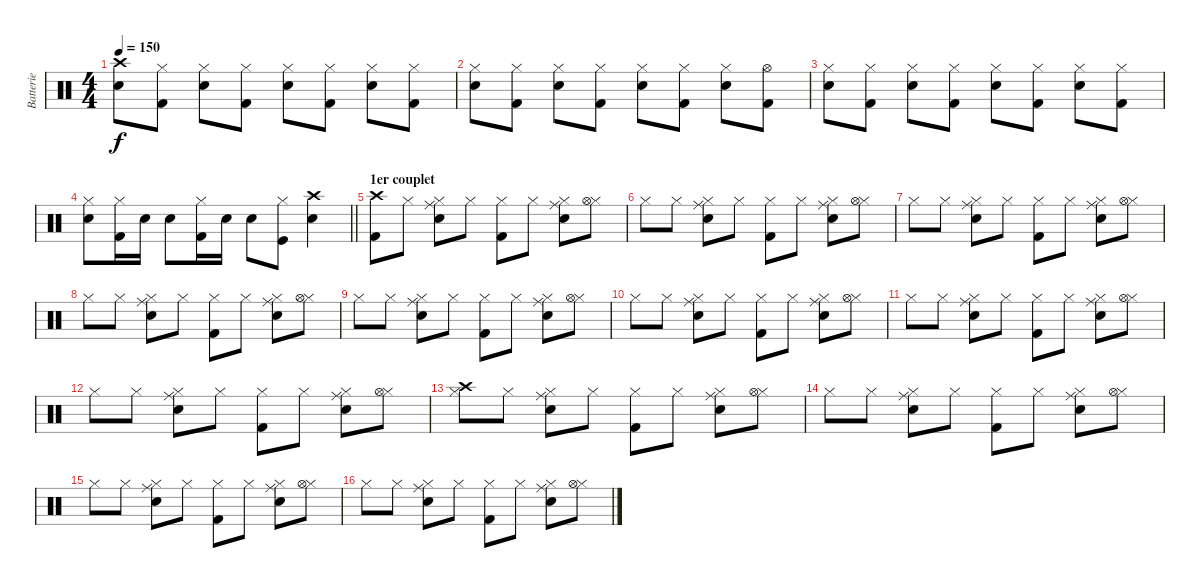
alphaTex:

\track ("Batterie" "Batterie") {instrument percussion}
\staff {score}
\articulation defaults
\ts (4 4)
\tempo 150
\clef neutral
\ks c
("Crash high (hit)" "Electric Snare (hit)").8{dy f} ("Hi-Hat (closed)" "Kick (hit) 2").8 ("Hi-Hat (closed)" "Electric Snare (hit)").8 ("Hi-Hat (closed)" "Kick (hit) 2").8 ("Hi-Hat (closed)" "Electric Snare (hit)").8 ("Hi-Hat (closed)" "Kick (hit) 2").8 ("Hi-Hat (closed)" "Electric Snare (hit)").8 ("Hi-Hat (closed)" "Kick (hit) 2").8 |
("Hi-Hat (closed)" "Electric Snare (hit)").8 ("Hi-Hat (closed)" "Kick (hit) 2").8 ("Hi-Hat (closed)" "Electric Snare (hit)").8 ("Hi-Hat (closed)" "Kick (hit) 2").8 ("Hi-Hat (closed)" "Electric Snare (hit)").8 ("Hi-Hat (closed)" "Kick (hit) 2").8 ("Hi-Hat (closed)" "Electric Snare (hit)").8 ("Hi-Hat (open)" "Kick (hit) 2").8 |
("Hi-Hat (closed)" "Electric Snare (hit)").8 ("Hi-Hat (closed)" "Kick (hit) 2").8 ("Hi-Hat (closed)" "Electric Snare (hit)").8 ("Hi-Hat (closed)" "Kick (hit) 2").8 ("Hi-Hat (closed)" "Electric Snare (hit)").8 ("Hi-Hat (closed)" "Kick (hit) 2").8 ("Hi-Hat (closed)" "Electric Snare (hit)").8 ("Hi-Hat (closed)" "Kick (hit) 2").8 |
\barLineRight lightlight
("Hi-Hat (closed)" "Electric Snare (hit)").8 ("Hi-Hat (closed)" "Kick (hit) 2").16 "Electric Snare (hit)".16 "Electric Snare (hit)".8 ("Hi-Hat (closed)" "Kick (hit) 2").16 "Electric Snare (hit)".16 "Electric Snare (hit)".8 ("Hi-Hat (closed)" "Kick (hit)").8 ("Crash high (hit)" "Electric Snare (hit)").4 |
\section ("" "1er couplet")
("Crash high (hit)" "Kick (hit) 2").8 "Hi-Hat (closed)".8 ("Hi-Hat (closed)" "Electric Snare (hit)" "Ride (middle)").8 "Hi-Hat (closed)".8 ("Hi-Hat (closed)" "Kick (hit) 2").8 "Hi-Hat (closed)".8 ("Hi-Hat (closed)" "Electric Snare (hit)" "Ride (middle)").8 ("Hi-Hat (closed)" "Hi-Hat (open)").8 |
"Hi-Hat (closed)".8 "Hi-Hat (closed)".8 ("Hi-Hat (closed)" "Electric Snare (hit)" "Ride (middle)").8 "Hi-Hat (closed)".8 ("Hi-Hat (closed)" "Kick (hit) 2").8 "Hi-Hat (closed)".8 ("Hi-Hat (closed)" "Electric Snare (hit)" "Ride (middle)").8 ("Hi-Hat (closed)" "Hi-Hat (open)").8 |
"Hi-Hat (closed)".8 "Hi-Hat (closed)".8 ("Hi-Hat (closed)" "Electric Snare (hit)" "Ride (middle)").8 "Hi-Hat (closed)".8 ("Hi-Hat (closed)" "Kick (hit) 2").8 "Hi-Hat (closed)".8 ("Hi-Hat (closed)" "Electric Snare (hit)" "Ride (middle)").8 ("Hi-Hat (closed)" "Hi-Hat (open)").8 |
"Hi-Hat (closed)".8 "Hi-Hat (closed)".8 ("Hi-Hat (closed)" "Electric Snare (hit)" "Ride (middle)").8 "Hi-Hat (closed)".8 ("Hi-Hat (closed)" "Kick (hit) 2").8 "Hi-Hat (closed)".8 ("Hi-Hat (closed)" "Electric Snare (hit)" "Ride (middle)").8 ("Hi-Hat (closed)" "Hi-Hat (open)").8 |
"Hi-Hat (closed)".8 "Hi-Hat (closed)".8 ("Hi-Hat (closed)" "Electric Snare (hit)" "Ride (middle)").8 "Hi-Hat (closed)".8 ("Hi-Hat (closed)" "Kick (hit) 2").8 "Hi-Hat (closed)".8 ("Hi-Hat (closed)" "Electric Snare (hit)" "Ride (middle)").8 ("Hi-Hat (closed)" "Hi-Hat (open)").8 |
"Hi-Hat (closed)".8 "Hi-Hat (closed)".8 ("Hi-Hat (closed)" "Electric Snare (hit)" "Ride (middle)").8 "Hi-Hat (closed)".8 ("Hi-Hat (closed)" "Kick (hit) 2").8 "Hi-Hat (closed)".8 ("Hi-Hat (closed)" "Electric Snare (hit)" "Ride (middle)").8 ("Hi-Hat (closed)" "Hi-Hat (open)").8 |
"Hi-Hat (closed)".8 "Hi-Hat (closed)".8 ("Hi-Hat (closed)" "Electric Snare (hit)" "Ride (middle)").8 "Hi-Hat (closed)".8 ("Hi-Hat (closed)" "Kick (hit) 2").8 "Hi-Hat (closed)".8 ("Hi-Hat (closed)" "Electric Snare (hit)" "Ride (middle)").8 ("Hi-Hat (closed)" "Hi-Hat (open)").8 |
"Hi-Hat (closed)".8 "Hi-Hat (closed)".8 ("Hi-Hat (closed)" "Electric Snare (hit)" "Ride (middle)").8 "Hi-Hat (closed)".8 ("Hi-Hat (closed)" "Kick (hit) 2").8 "Hi-Hat (closed)".8 ("Hi-Hat (closed)" "Electric Snare (hit)" "Ride (middle)").8 ("Hi-Hat (closed)" "Hi-Hat (open)").8 |
("Hi-Hat (closed)" "Crash high (hit)").8 "Hi-Hat (closed)".8 ("Hi-Hat (closed)" "Electric Snare (hit)" "Ride (middle)").8 "Hi-Hat (closed)".8 ("Hi-Hat (closed)" "Kick (hit) 2").8 "Hi-Hat (closed)".8 ("Hi-Hat (closed)" "Electric Snare (hit)" "Ride (middle)").8 ("Hi-Hat (closed)" "Hi-Hat (open)").8 |
"Hi-Hat (closed)".8 "Hi-Hat (closed)".8 ("Hi-Hat (closed)" "Electric Snare (hit)" "Ride (middle)").8 "Hi-Hat (closed)".8 ("Hi-Hat (closed)" "Kick (hit) 2").8 "Hi-Hat (closed)".8 ("Hi-Hat (closed)" "Electric Snare (hit)" "Ride (middle)").8 ("Hi-Hat (closed)" "Hi-Hat (open)").8 |
"Hi-Hat (closed)".8 "Hi-Hat (closed)".8 ("Hi-Hat (closed)" "Electric Snare (hit)" "Ride (middle)").8 "Hi-Hat (closed)".8 ("Hi-Hat (closed)" "Kick (hit) 2").8 "Hi-Hat (closed)".8 ("Hi-Hat (closed)" "Electric Snare (hit)" "Ride (middle)").8 ("Hi-Hat (closed)" "Hi-Hat (open)").8 |
"Hi-Hat (closed)".8 "Hi-Hat (closed)".8 ("Hi-Hat (closed)" "Electric Snare (hit)" "Ride (middle)").8 "Hi-Hat (closed)".8 ("Hi-Hat (closed)" "Kick (hit) 2").8 "Hi-Hat (closed)".8 ("Hi-Hat (closed)" "Electric Snare (hit)" "Ride (middle)").8 ("Hi-Hat (closed)" "Hi-Hat (open)").8
